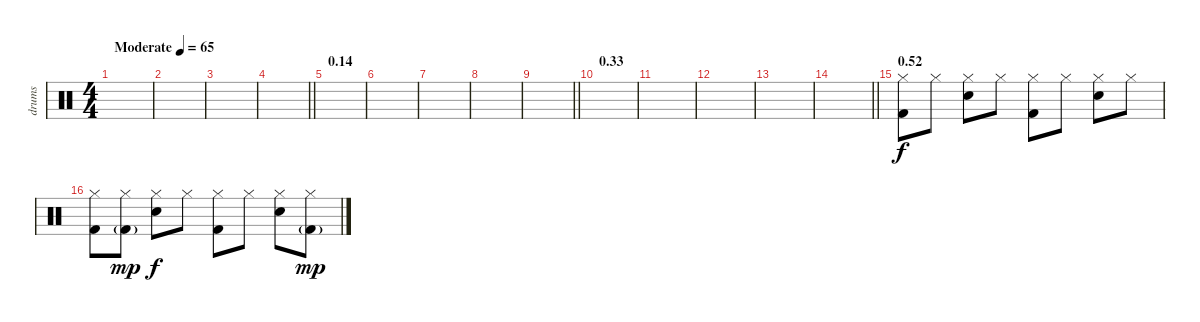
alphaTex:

\track ("drums" "drums") {instrument percussion}
\staff {score}
\articulation defaults
\ts (4 4)
\tempo (65 "Moderate")
\clef neutral
\ks c
|
|
|
\barLineRight lightlight
|
\section ("" "0.14")
|
|
|
|
\barLineRight lightlight
|
\section ("" "0.33")
|
|
|
|
\barLineRight lightlight
|
\section ("" "0.52")
("Hi-Hat (closed)" "Kick (hit) 2").8 "Hi-Hat (closed)".8 ("Hi-Hat (closed)" "Electric Snare (hit)").8 "Hi-Hat (closed)".8 ("Hi-Hat (closed)" "Kick (hit) 2").8 "Hi-Hat (closed)".8 ("Hi-Hat (closed)" "Electric Snare (hit)").8 "Hi-Hat (closed)".8 |
("Hi-Hat (closed)" "Kick (hit) 2").8 ("Hi-Hat (closed)" "Kick (hit) 2"{g}).8{dy mp} ("Hi-Hat (closed)" "Electric Snare (hit)").8{dy f} "Hi-Hat (closed)".8 ("Hi-Hat (closed)" "Kick (hit) 2").8 "Hi-Hat (closed)".8 ("Hi-Hat (closed)" "Electric Snare (hit)").8 ("Hi-Hat (closed)" "Kick (hit) 2"{g}).8{dy mp}
